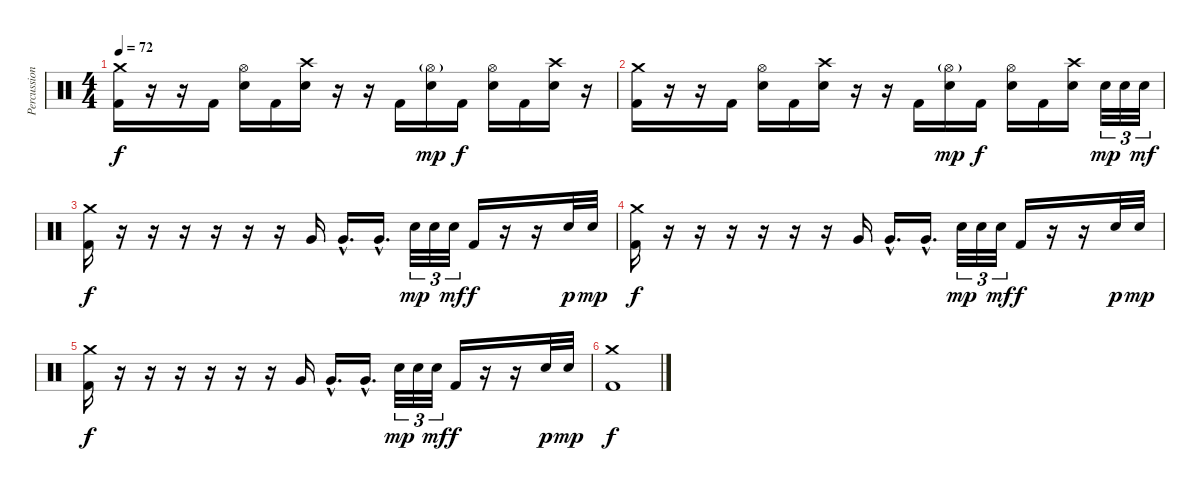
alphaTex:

\track ("Percussion" "Percussion") {instrument percussion}
\staff {score}
\articulation defaults
\ts (4 4)
\tempo 72
\clef neutral
\ks c
("Crash medium (hit)" "Kick (hit) 2").16{dy f} r.16 r.16 "Kick (hit) 2".16 ("Hi-Hat (open)" "Electric Snare (hit)").16 "Kick (hit) 2".16 ("Crash high (hit)" "Electric Snare (hit)").16 r.16 r.16 "Kick (hit) 2".16 ("Hi-Hat (open)"{g} "Electric Snare (hit)").16{dy mp} "Kick (hit) 2".16{dy f} ("Hi-Hat (open)" "Electric Snare (hit)").16 "Kick (hit) 2".16 ("Crash high (hit)" "Electric Snare (hit)").16 r.16 |
("Crash medium (hit)" "Kick (hit) 2").16 r.16 r.16 "Kick (hit) 2".16 ("Hi-Hat (open)" "Electric Snare (hit)").16 "Kick (hit) 2".16 ("Crash high (hit)" "Electric Snare (hit)").16 r.16 r.16 "Kick (hit) 2".16 ("Hi-Hat (open)"{g} "Electric Snare (hit)").16{dy mp} "Kick (hit) 2".16{dy f} ("Hi-Hat (open)" "Electric Snare (hit)").16 "Kick (hit) 2".16 ("Crash high (hit)" "Electric Snare (hit)").16 "Electric Snare (hit)".32{tu (3 2) dy mp} "Electric Snare (hit)".32{tu (3 2)} "Electric Snare (hit)".32{tu (3 2) dy mf} |
("Crash medium (hit)" "Kick (hit) 2").16{dy f} r.16 r.16 r.16 r.16 r.16 r.16 "Very Low Tom (hit)".16 "Very Low Tom (hit)"{hac}.16{d} "Very Low Tom (hit)"{hac}.16{d} "Electric Snare (hit)".32{tu (3 2) dy mp} "Electric Snare (hit)".32{tu (3 2)} "Electric Snare (hit)".32{tu (3 2) dy mf} "Kick (hit) 2".16{dy f} r.16 r.16 "Electric Snare (hit)".32{dy p} "Electric Snare (hit)".32{dy mp} |
("Crash medium (hit)" "Kick (hit) 2").16{dy f} r.16 r.16 r.16 r.16 r.16 r.16 "Very Low Tom (hit)".16 "Very Low Tom (hit)"{hac}.16{d} "Very Low Tom (hit)"{hac}.16{d} "Electric Snare (hit)".32{tu (3 2) dy mp} "Electric Snare (hit)".32{tu (3 2)} "Electric Snare (hit)".32{tu (3 2) dy mf} "Kick (hit) 2".16{dy f} r.16 r.16 "Electric Snare (hit)".32{dy p} "Electric Snare (hit)".32{dy mp} |
("Crash medium (hit)" "Kick (hit) 2").16{dy f} r.16 r.16 r.16 r.16 r.16 r.16 "Very Low Tom (hit)".16 "Very Low Tom (hit)"{hac}.16{d} "Very Low Tom (hit)"{hac}.16{d} "Electric Snare (hit)".32{tu (3 2) dy mp} "Electric Snare (hit)".32{tu (3 2)} "Electric Snare (hit)".32{tu (3 2) dy mf} "Kick (hit) 2".16{dy f} r.16 r.16 "Electric Snare (hit)".32{dy p} "Electric Snare (hit)".32{dy mp} |
("Crash medium (hit)" "Kick (hit) 2").1{dy f}
